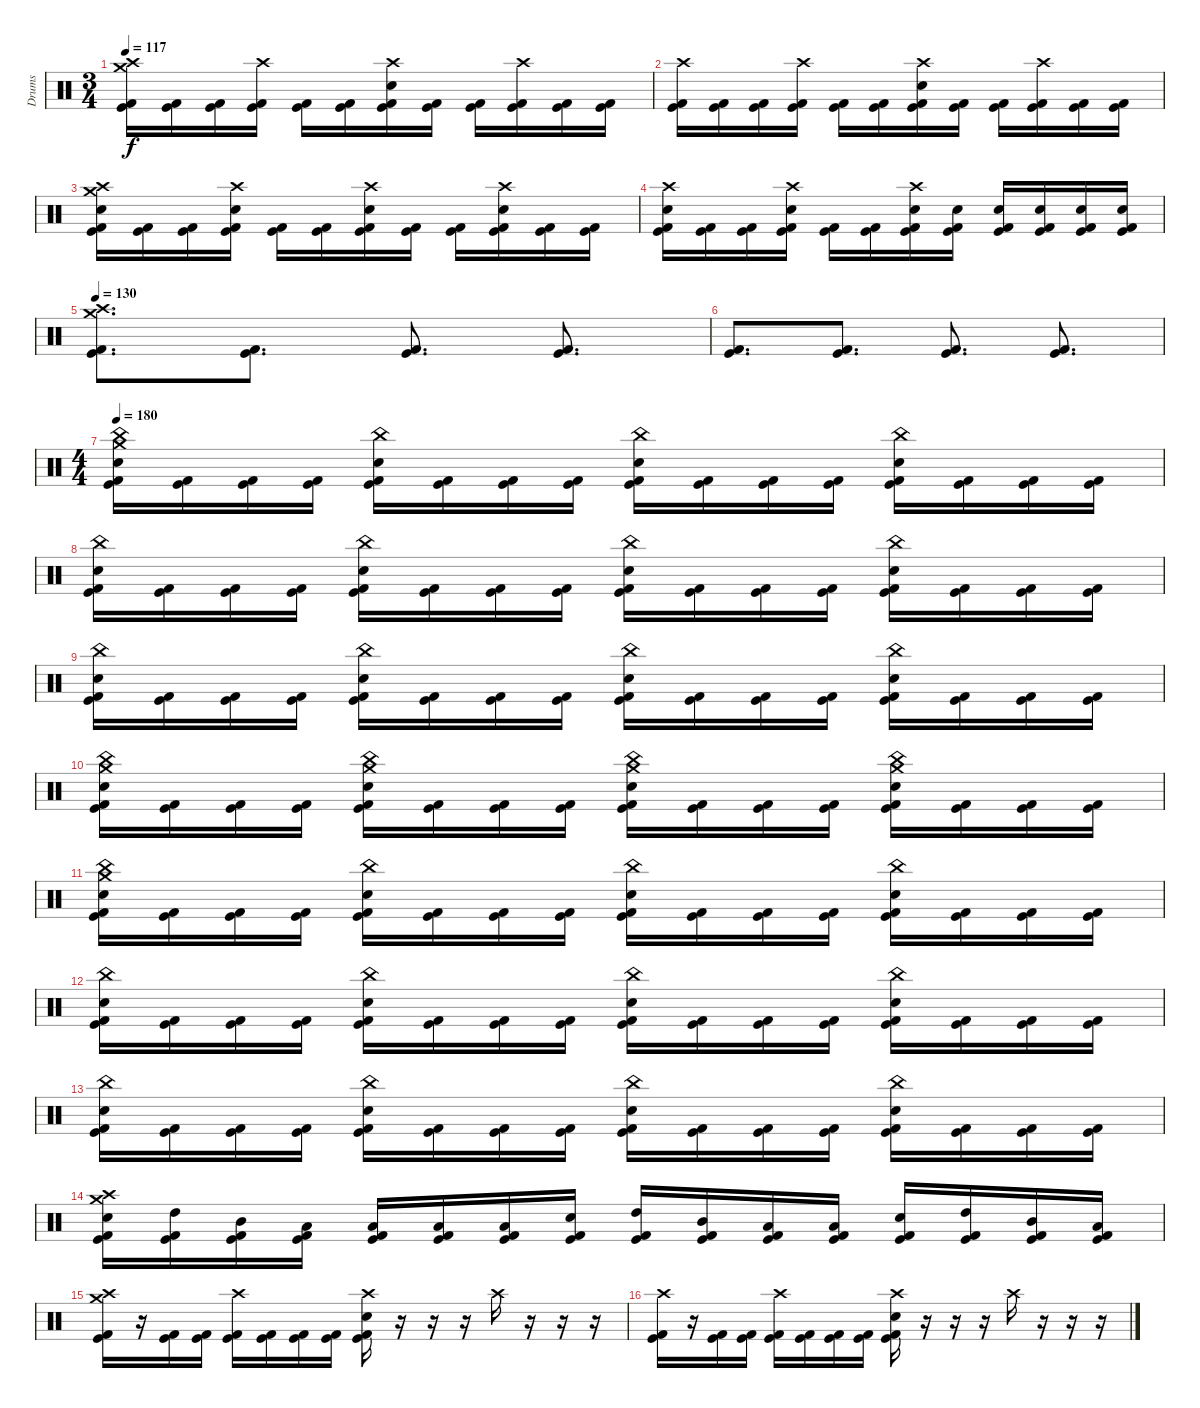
\track ("Drums" "Drums") {instrument percussion}
\staff {score}
\articulation defaults
\ts (3 4)
\tempo 117
\clef neutral
\ks c
("Crash medium (hit)" "Crash high (hit)" "Kick (hit)" "Kick (hit) 2").16{dy f} ("Kick (hit)" "Kick (hit) 2").16 ("Kick (hit)" "Kick (hit) 2").16 ("Crash high (hit)" "Kick (hit)" "Kick (hit) 2").16 ("Kick (hit)" "Kick (hit) 2").16 ("Kick (hit)" "Kick (hit) 2").16 ("Crash high (hit)" "Electric Snare (hit)" "Kick (hit)" "Kick (hit) 2").16 ("Kick (hit)" "Kick (hit) 2").16 ("Kick (hit)" "Kick (hit) 2").16 ("Crash high (hit)" "Kick (hit)" "Kick (hit) 2").16 ("Kick (hit)" "Kick (hit) 2").16 ("Kick (hit)" "Kick (hit) 2").16 |
("Crash high (hit)" "Kick (hit)" "Kick (hit) 2").16 ("Kick (hit)" "Kick (hit) 2").16 ("Kick (hit)" "Kick (hit) 2").16 ("Crash high (hit)" "Kick (hit)" "Kick (hit) 2").16 ("Kick (hit)" "Kick (hit) 2").16 ("Kick (hit)" "Kick (hit) 2").16 ("Crash high (hit)" "Electric Snare (hit)" "Kick (hit)" "Kick (hit) 2").16 ("Kick (hit)" "Kick (hit) 2").16 ("Kick (hit)" "Kick (hit) 2").16 ("Crash high (hit)" "Kick (hit)" "Kick (hit) 2").16 ("Kick (hit)" "Kick (hit) 2").16 ("Kick (hit)" "Kick (hit) 2").16 |
("Crash medium (hit)" "Crash high (hit)" "Electric Snare (hit)" "Kick (hit)" "Kick (hit) 2").16 ("Kick (hit)" "Kick (hit) 2").16 ("Kick (hit)" "Kick (hit) 2").16 ("Crash high (hit)" "Electric Snare (hit)" "Kick (hit)" "Kick (hit) 2").16 ("Kick (hit)" "Kick (hit) 2").16 ("Kick (hit)" "Kick (hit) 2").16 ("Crash high (hit)" "Electric Snare (hit)" "Kick (hit)" "Kick (hit) 2").16 ("Kick (hit)" "Kick (hit) 2").16 ("Kick (hit)" "Kick (hit) 2").16 ("Crash high (hit)" "Electric Snare (hit)" "Kick (hit)" "Kick (hit) 2").16 ("Kick (hit)" "Kick (hit) 2").16 ("Kick (hit)" "Kick (hit) 2").16 |
("Crash high (hit)" "Electric Snare (hit)" "Kick (hit)" "Kick (hit) 2").16 ("Kick (hit)" "Kick (hit) 2").16 ("Kick (hit)" "Kick (hit) 2").16 ("Crash high (hit)" "Electric Snare (hit)" "Kick (hit)" "Kick (hit) 2").16 ("Kick (hit)" "Kick (hit) 2").16 ("Kick (hit)" "Kick (hit) 2").16 ("Crash high (hit)" "Electric Snare (hit)" "Kick (hit)" "Kick (hit) 2").16 ("Electric Snare (hit)" "Kick (hit)" "Kick (hit) 2").16 ("Electric Snare (hit)" "Kick (hit)" "Kick (hit) 2").16 ("Electric Snare (hit)" "Kick (hit)" "Kick (hit) 2").16 ("Electric Snare (hit)" "Kick (hit)" "Kick (hit) 2").16 ("Electric Snare (hit)" "Kick (hit)" "Kick (hit) 2").16 |
\tempo 130
("Crash medium (hit)" "Crash high (hit)" "Kick (hit)" "Kick (hit) 2").8{d} ("Kick (hit)" "Kick (hit) 2").8{d} ("Kick (hit)" "Kick (hit) 2").8{d} ("Kick (hit)" "Kick (hit) 2").8{d} |
("Kick (hit)" "Kick (hit) 2").8{d} ("Kick (hit)" "Kick (hit) 2").8{d} ("Kick (hit)" "Kick (hit) 2").8{d} ("Kick (hit)" "Kick (hit) 2").8{d} |
\ts (4 4)
\tempo 175
\tempo 180
("Crash medium (hit)" "China (hit)" "Electric Snare (hit)" "Kick (hit)" "Kick (hit) 2").16 ("Kick (hit)" "Kick (hit) 2").16 ("Kick (hit)" "Kick (hit) 2").16 ("Kick (hit)" "Kick (hit) 2").16 ("China (hit)" "Electric Snare (hit)" "Kick (hit)" "Kick (hit) 2").16 ("Kick (hit)" "Kick (hit) 2").16 ("Kick (hit)" "Kick (hit) 2").16 ("Kick (hit)" "Kick (hit) 2").16 ("China (hit)" "Electric Snare (hit)" "Kick (hit)" "Kick (hit) 2").16 ("Kick (hit)" "Kick (hit) 2").16 ("Kick (hit)" "Kick (hit) 2").16 ("Kick (hit)" "Kick (hit) 2").16 ("China (hit)" "Electric Snare (hit)" "Kick (hit)" "Kick (hit) 2").16 ("Kick (hit)" "Kick (hit) 2").16 ("Kick (hit)" "Kick (hit) 2").16 ("Kick (hit)" "Kick (hit) 2").16 |
("China (hit)" "Electric Snare (hit)" "Kick (hit)" "Kick (hit) 2").16 ("Kick (hit)" "Kick (hit) 2").16 ("Kick (hit)" "Kick (hit) 2").16 ("Kick (hit)" "Kick (hit) 2").16 ("China (hit)" "Electric Snare (hit)" "Kick (hit)" "Kick (hit) 2").16 ("Kick (hit)" "Kick (hit) 2").16 ("Kick (hit)" "Kick (hit) 2").16 ("Kick (hit)" "Kick (hit) 2").16 ("China (hit)" "Electric Snare (hit)" "Kick (hit)" "Kick (hit) 2").16 ("Kick (hit)" "Kick (hit) 2").16 ("Kick (hit)" "Kick (hit) 2").16 ("Kick (hit)" "Kick (hit) 2").16 ("China (hit)" "Electric Snare (hit)" "Kick (hit)" "Kick (hit) 2").16 ("Kick (hit)" "Kick (hit) 2").16 ("Kick (hit)" "Kick (hit) 2").16 ("Kick (hit)" "Kick (hit) 2").16 |
("China (hit)" "Electric Snare (hit)" "Kick (hit)" "Kick (hit) 2").16 ("Kick (hit)" "Kick (hit) 2").16 ("Kick (hit)" "Kick (hit) 2").16 ("Kick (hit)" "Kick (hit) 2").16 ("China (hit)" "Electric Snare (hit)" "Kick (hit)" "Kick (hit) 2").16 ("Kick (hit)" "Kick (hit) 2").16 ("Kick (hit)" "Kick (hit) 2").16 ("Kick (hit)" "Kick (hit) 2").16 ("China (hit)" "Electric Snare (hit)" "Kick (hit)" "Kick (hit) 2").16 ("Kick (hit)" "Kick (hit) 2").16 ("Kick (hit)" "Kick (hit) 2").16 ("Kick (hit)" "Kick (hit) 2").16 ("China (hit)" "Electric Snare (hit)" "Kick (hit)" "Kick (hit) 2").16 ("Kick (hit)" "Kick (hit) 2").16 ("Kick (hit)" "Kick (hit) 2").16 ("Kick (hit)" "Kick (hit) 2").16 |
("Crash medium (hit)" "China (hit)" "Electric Snare (hit)" "Kick (hit)" "Kick (hit) 2").16 ("Kick (hit)" "Kick (hit) 2").16 ("Kick (hit)" "Kick (hit) 2").16 ("Kick (hit)" "Kick (hit) 2").16 ("Crash medium (hit)" "China (hit)" "Electric Snare (hit)" "Kick (hit)" "Kick (hit) 2").16 ("Kick (hit)" "Kick (hit) 2").16 ("Kick (hit)" "Kick (hit) 2").16 ("Kick (hit)" "Kick (hit) 2").16 ("Crash medium (hit)" "China (hit)" "Electric Snare (hit)" "Kick (hit)" "Kick (hit) 2").16 ("Kick (hit)" "Kick (hit) 2").16 ("Kick (hit)" "Kick (hit) 2").16 ("Kick (hit)" "Kick (hit) 2").16 ("Crash medium (hit)" "China (hit)" "Electric Snare (hit)" "Kick (hit)" "Kick (hit) 2").16 ("Kick (hit)" "Kick (hit) 2").16 ("Kick (hit)" "Kick (hit) 2").16 ("Kick (hit)" "Kick (hit) 2").16 |
("Crash medium (hit)" "China (hit)" "Electric Snare (hit)" "Kick (hit)" "Kick (hit) 2").16 ("Kick (hit)" "Kick (hit) 2").16 ("Kick (hit)" "Kick (hit) 2").16 ("Kick (hit)" "Kick (hit) 2").16 ("China (hit)" "Electric Snare (hit)" "Kick (hit)" "Kick (hit) 2").16 ("Kick (hit)" "Kick (hit) 2").16 ("Kick (hit)" "Kick (hit) 2").16 ("Kick (hit)" "Kick (hit) 2").16 ("China (hit)" "Electric Snare (hit)" "Kick (hit)" "Kick (hit) 2").16 ("Kick (hit)" "Kick (hit) 2").16 ("Kick (hit)" "Kick (hit) 2").16 ("Kick (hit)" "Kick (hit) 2").16 ("China (hit)" "Electric Snare (hit)" "Kick (hit)" "Kick (hit) 2").16 ("Kick (hit)" "Kick (hit) 2").16 ("Kick (hit)" "Kick (hit) 2").16 ("Kick (hit)" "Kick (hit) 2").16 |
("China (hit)" "Electric Snare (hit)" "Kick (hit)" "Kick (hit) 2").16 ("Kick (hit)" "Kick (hit) 2").16 ("Kick (hit)" "Kick (hit) 2").16 ("Kick (hit)" "Kick (hit) 2").16 ("China (hit)" "Electric Snare (hit)" "Kick (hit)" "Kick (hit) 2").16 ("Kick (hit)" "Kick (hit) 2").16 ("Kick (hit)" "Kick (hit) 2").16 ("Kick (hit)" "Kick (hit) 2").16 ("China (hit)" "Electric Snare (hit)" "Kick (hit)" "Kick (hit) 2").16 ("Kick (hit)" "Kick (hit) 2").16 ("Kick (hit)" "Kick (hit) 2").16 ("Kick (hit)" "Kick (hit) 2").16 ("China (hit)" "Electric Snare (hit)" "Kick (hit)" "Kick (hit) 2").16 ("Kick (hit)" "Kick (hit) 2").16 ("Kick (hit)" "Kick (hit) 2").16 ("Kick (hit)" "Kick (hit) 2").16 |
("China (hit)" "Electric Snare (hit)" "Kick (hit)" "Kick (hit) 2").16 ("Kick (hit)" "Kick (hit) 2").16 ("Kick (hit)" "Kick (hit) 2").16 ("Kick (hit)" "Kick (hit) 2").16 ("China (hit)" "Electric Snare (hit)" "Kick (hit)" "Kick (hit) 2").16 ("Kick (hit)" "Kick (hit) 2").16 ("Kick (hit)" "Kick (hit) 2").16 ("Kick (hit)" "Kick (hit) 2").16 ("China (hit)" "Electric Snare (hit)" "Kick (hit)" "Kick (hit) 2").16 ("Kick (hit)" "Kick (hit) 2").16 ("Kick (hit)" "Kick (hit) 2").16 ("Kick (hit)" "Kick (hit) 2").16 ("China (hit)" "Electric Snare (hit)" "Kick (hit)" "Kick (hit) 2").16 ("Kick (hit)" "Kick (hit) 2").16 ("Kick (hit)" "Kick (hit) 2").16 ("Kick (hit)" "Kick (hit) 2").16 |
("Crash medium (hit)" "Crash high (hit)" "Electric Snare (hit)" "Kick (hit)" "Kick (hit) 2").16 ("High Tom (hit)" "Kick (hit)" "Kick (hit) 2").16 ("Mid Tom (hit)" "Kick (hit)" "Kick (hit) 2").16 ("Low Tom (hit)" "Kick (hit)" "Kick (hit) 2").16 ("Low Floor Tom (hit)" "Kick (hit)" "Kick (hit) 2").16 ("Low Floor Tom (hit)" "Kick (hit)" "Kick (hit) 2").16 ("Low Floor Tom (hit)" "Kick (hit)" "Kick (hit) 2").16 ("Electric Snare (hit)" "Kick (hit)" "Kick (hit) 2").16 ("High Tom (hit)" "Kick (hit)" "Kick (hit) 2").16 ("Mid Tom (hit)" "Kick (hit)" "Kick (hit) 2").16 ("Low Tom (hit)" "Kick (hit)" "Kick (hit) 2").16 ("Low Floor Tom (hit)" "Kick (hit)" "Kick (hit) 2").16 ("Electric Snare (hit)" "Kick (hit)" "Kick (hit) 2").16 ("High Tom (hit)" "Kick (hit)" "Kick (hit) 2").16 ("Mid Tom (hit)" "Kick (hit)" "Kick (hit) 2").16 ("Low Tom (hit)" "Kick (hit)" "Kick (hit) 2").16 |
("Crash medium (hit)" "Crash high (hit)" "Kick (hit)" "Kick (hit) 2").16 r.16 ("Kick (hit)" "Kick (hit) 2").16 ("Kick (hit)" "Kick (hit) 2").16 ("Crash high (hit)" "Kick (hit)" "Kick (hit) 2").16 ("Kick (hit)" "Kick (hit) 2").16 ("Kick (hit)" "Kick (hit) 2").16 ("Kick (hit)" "Kick (hit) 2").16 ("Crash high (hit)" "Electric Snare (hit)" "Kick (hit)" "Kick (hit) 2").16 r.16 r.16 r.16 "Crash high (hit)".16 r.16 r.16 r.16 |
("Crash high (hit)" "Kick (hit)" "Kick (hit) 2").16 r.16 ("Kick (hit)" "Kick (hit) 2").16 ("Kick (hit)" "Kick (hit) 2").16 ("Crash high (hit)" "Kick (hit)" "Kick (hit) 2").16 ("Kick (hit)" "Kick (hit) 2").16 ("Kick (hit)" "Kick (hit) 2").16 ("Kick (hit)" "Kick (hit) 2").16 ("Crash high (hit)" "Electric Snare (hit)" "Kick (hit)" "Kick (hit) 2").16 r.16 r.16 r.16 "Crash high (hit)".16 r.16 r.16 r.16
